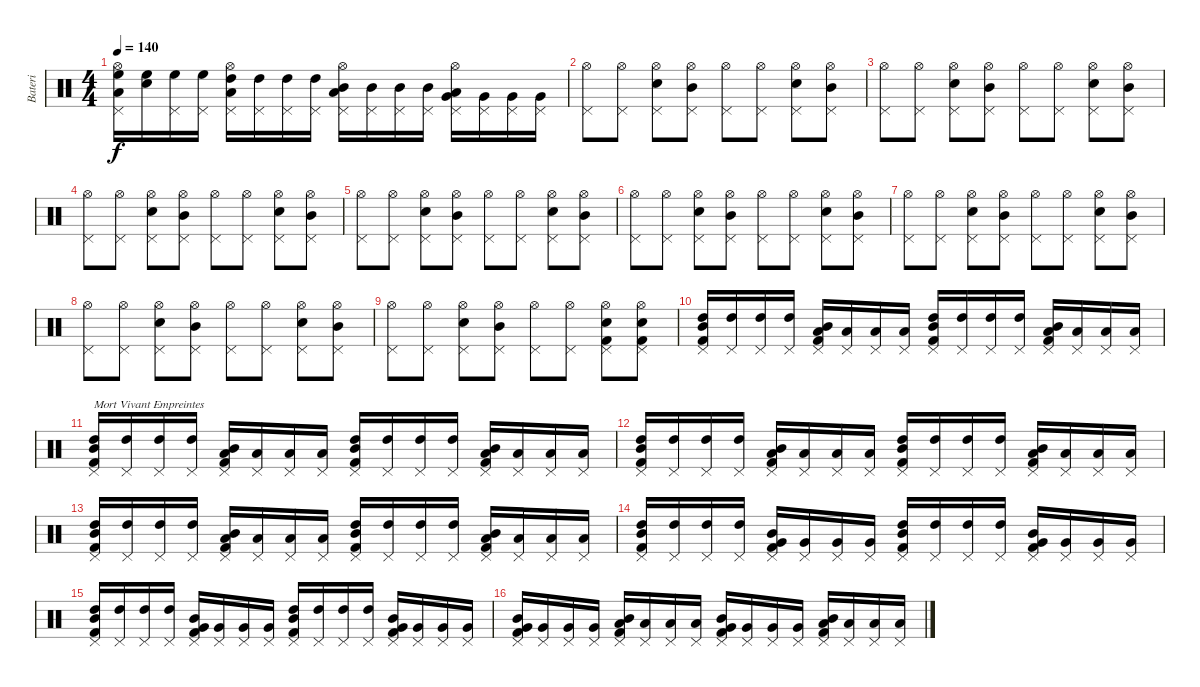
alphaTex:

\track ("Bateri" "Bateri") {instrument percussion}
\staff {score}
\articulation defaults
\ts (4 4)
\tempo 140
\clef neutral
\ks c
("Hi-Hat (open)" "High Floor Tom (hit)" "Low Tom (hit)" "Pedal Hi-Hat (hit)").16{dy f} ("High Floor Tom (hit)" "Snare (hit)").16 ("High Floor Tom (hit)" "Pedal Hi-Hat (hit)").16 ("High Floor Tom (hit)" "Pedal Hi-Hat (hit)").16 ("Hi-Hat (open)" "High Tom (hit)" "Low Tom (hit)" "Pedal Hi-Hat (hit)").16 ("High Tom (hit)" "Pedal Hi-Hat (hit)").16 ("High Tom (hit)" "Pedal Hi-Hat (hit)").16 ("High Tom (hit)" "Pedal Hi-Hat (hit)").16 ("Hi-Hat (open)" "Mid Tom (hit)" "Low Tom (hit)" "Pedal Hi-Hat (hit)").16 ("Mid Tom (hit)" "Pedal Hi-Hat (hit)").16 ("Mid Tom (hit)" "Pedal Hi-Hat (hit)").16 ("Mid Tom (hit)" "Pedal Hi-Hat (hit)").16 ("Hi-Hat (open)" "Very Low Tom (hit)" "Low Tom (hit)" "Pedal Hi-Hat (hit)").16 ("Very Low Tom (hit)" "Pedal Hi-Hat (hit)").16 ("Very Low Tom (hit)" "Pedal Hi-Hat (hit)").16 ("Very Low Tom (hit)" "Pedal Hi-Hat (hit)").16 |
("Hi-Hat (open)" "Pedal Hi-Hat (hit)").8 ("Hi-Hat (open)" "Pedal Hi-Hat (hit)").8 ("Hi-Hat (open)" "Snare (hit) 2" "Pedal Hi-Hat (hit)").8 ("Hi-Hat (open)" "Mid Tom (hit)" "Pedal Hi-Hat (hit)").8 ("Hi-Hat (open)" "Pedal Hi-Hat (hit)").8 ("Hi-Hat (open)" "Pedal Hi-Hat (hit)").8 ("Hi-Hat (open)" "Snare (hit) 2" "Pedal Hi-Hat (hit)").8 ("Hi-Hat (open)" "Mid Tom (hit)" "Pedal Hi-Hat (hit)").8 |
("Hi-Hat (open)" "Pedal Hi-Hat (hit)").8 ("Hi-Hat (open)" "Pedal Hi-Hat (hit)").8 ("Hi-Hat (open)" "Snare (hit) 2" "Pedal Hi-Hat (hit)").8 ("Hi-Hat (open)" "Mid Tom (hit)" "Pedal Hi-Hat (hit)").8 ("Hi-Hat (open)" "Pedal Hi-Hat (hit)").8 ("Hi-Hat (open)" "Pedal Hi-Hat (hit)").8 ("Hi-Hat (open)" "Snare (hit) 2" "Pedal Hi-Hat (hit)").8 ("Hi-Hat (open)" "Mid Tom (hit)" "Pedal Hi-Hat (hit)").8 |
("Hi-Hat (open)" "Pedal Hi-Hat (hit)").8 ("Hi-Hat (open)" "Pedal Hi-Hat (hit)").8 ("Hi-Hat (open)" "Snare (hit) 2" "Pedal Hi-Hat (hit)").8 ("Hi-Hat (open)" "Mid Tom (hit)" "Pedal Hi-Hat (hit)").8 ("Hi-Hat (open)" "Pedal Hi-Hat (hit)").8 ("Hi-Hat (open)" "Pedal Hi-Hat (hit)").8 ("Hi-Hat (open)" "Snare (hit) 2" "Pedal Hi-Hat (hit)").8 ("Hi-Hat (open)" "Mid Tom (hit)" "Pedal Hi-Hat (hit)").8 |
("Hi-Hat (open)" "Pedal Hi-Hat (hit)").8 ("Hi-Hat (open)" "Pedal Hi-Hat (hit)").8 ("Hi-Hat (open)" "Snare (hit) 2" "Pedal Hi-Hat (hit)").8 ("Hi-Hat (open)" "Mid Tom (hit)" "Pedal Hi-Hat (hit)").8 ("Hi-Hat (open)" "Pedal Hi-Hat (hit)").8 ("Hi-Hat (open)" "Pedal Hi-Hat (hit)").8 ("Hi-Hat (open)" "Snare (hit) 2" "Pedal Hi-Hat (hit)").8 ("Hi-Hat (open)" "Mid Tom (hit)" "Pedal Hi-Hat (hit)").8 |
("Hi-Hat (open)" "Pedal Hi-Hat (hit)").8 ("Hi-Hat (open)" "Pedal Hi-Hat (hit)").8 ("Hi-Hat (open)" "Snare (hit) 2" "Pedal Hi-Hat (hit)").8 ("Hi-Hat (open)" "Mid Tom (hit)" "Pedal Hi-Hat (hit)").8 ("Hi-Hat (open)" "Pedal Hi-Hat (hit)").8 ("Hi-Hat (open)" "Pedal Hi-Hat (hit)").8 ("Hi-Hat (open)" "Snare (hit) 2" "Pedal Hi-Hat (hit)").8 ("Hi-Hat (open)" "Mid Tom (hit)" "Pedal Hi-Hat (hit)").8 |
("Hi-Hat (open)" "Pedal Hi-Hat (hit)").8 ("Hi-Hat (open)" "Pedal Hi-Hat (hit)").8 ("Hi-Hat (open)" "Snare (hit) 2" "Pedal Hi-Hat (hit)").8 ("Hi-Hat (open)" "Mid Tom (hit)" "Pedal Hi-Hat (hit)").8 ("Hi-Hat (open)" "Pedal Hi-Hat (hit)").8 ("Hi-Hat (open)" "Pedal Hi-Hat (hit)").8 ("Hi-Hat (open)" "Snare (hit) 2" "Pedal Hi-Hat (hit)").8 ("Hi-Hat (open)" "Mid Tom (hit)" "Pedal Hi-Hat (hit)").8 |
("Hi-Hat (open)" "Pedal Hi-Hat (hit)").8 ("Hi-Hat (open)" "Pedal Hi-Hat (hit)").8 ("Hi-Hat (open)" "Snare (hit) 2" "Pedal Hi-Hat (hit)").8 ("Hi-Hat (open)" "Mid Tom (hit)" "Pedal Hi-Hat (hit)").8 ("Hi-Hat (open)" "Pedal Hi-Hat (hit)").8 ("Hi-Hat (open)" "Pedal Hi-Hat (hit)").8 ("Hi-Hat (open)" "Snare (hit) 2" "Pedal Hi-Hat (hit)").8 ("Hi-Hat (open)" "Mid Tom (hit)" "Pedal Hi-Hat (hit)").8 |
("Hi-Hat (open)" "Pedal Hi-Hat (hit)").8 ("Hi-Hat (open)" "Pedal Hi-Hat (hit)").8 ("Hi-Hat (open)" "Snare (hit) 2" "Pedal Hi-Hat (hit)").8 ("Hi-Hat (open)" "Mid Tom (hit)" "Pedal Hi-Hat (hit)").8 ("Hi-Hat (open)" "Pedal Hi-Hat (hit)").8 ("Hi-Hat (open)" "Pedal Hi-Hat (hit)").8 ("Hi-Hat (open)" "Snare (hit) 2" "Kick (hit) 2" "Pedal Hi-Hat (hit)").8 ("Hi-Hat (open)" "Snare (hit) 2" "Kick (hit) 2" "Pedal Hi-Hat (hit)").8 |
("High Tom (hit)" "Mid Tom (hit)" "Kick (hit) 2" "Pedal Hi-Hat (hit)").16 ("High Tom (hit)" "Pedal Hi-Hat (hit)").16 ("High Tom (hit)" "Pedal Hi-Hat (hit)").16 ("High Tom (hit)" "Pedal Hi-Hat (hit)").16 ("Low Tom (hit)" "Mid Tom (hit)" "Kick (hit) 2" "Pedal Hi-Hat (hit)").16 ("Low Tom (hit)" "Pedal Hi-Hat (hit)").16 ("Low Tom (hit)" "Pedal Hi-Hat (hit)").16 ("Low Tom (hit)" "Pedal Hi-Hat (hit)").16 ("High Tom (hit)" "Mid Tom (hit)" "Kick (hit) 2" "Pedal Hi-Hat (hit)").16 ("High Tom (hit)" "Pedal Hi-Hat (hit)").16 ("High Tom (hit)" "Pedal Hi-Hat (hit)").16 ("High Tom (hit)" "Pedal Hi-Hat (hit)").16 ("Low Tom (hit)" "Mid Tom (hit)" "Kick (hit) 2" "Pedal Hi-Hat (hit)").16 ("Low Tom (hit)" "Pedal Hi-Hat (hit)").16 ("Low Tom (hit)" "Pedal Hi-Hat (hit)").16 ("Low Tom (hit)" "Pedal Hi-Hat (hit)").16 |
("High Tom (hit)" "Mid Tom (hit)" "Kick (hit) 2" "Pedal Hi-Hat (hit)").16{txt "Mort Vivant Empreintes"} ("High Tom (hit)" "Pedal Hi-Hat (hit)").16 ("High Tom (hit)" "Pedal Hi-Hat (hit)").16 ("High Tom (hit)" "Pedal Hi-Hat (hit)").16 ("Low Tom (hit)" "Mid Tom (hit)" "Kick (hit) 2" "Pedal Hi-Hat (hit)").16 ("Low Tom (hit)" "Pedal Hi-Hat (hit)").16 ("Low Tom (hit)" "Pedal Hi-Hat (hit)").16 ("Low Tom (hit)" "Pedal Hi-Hat (hit)").16 ("High Tom (hit)" "Mid Tom (hit)" "Kick (hit) 2" "Pedal Hi-Hat (hit)").16 ("High Tom (hit)" "Pedal Hi-Hat (hit)").16 ("High Tom (hit)" "Pedal Hi-Hat (hit)").16 ("High Tom (hit)" "Pedal Hi-Hat (hit)").16 ("Low Tom (hit)" "Mid Tom (hit)" "Kick (hit) 2" "Pedal Hi-Hat (hit)").16 ("Low Tom (hit)" "Pedal Hi-Hat (hit)").16 ("Low Tom (hit)" "Pedal Hi-Hat (hit)").16 ("Low Tom (hit)" "Pedal Hi-Hat (hit)").16 |
("High Tom (hit)" "Mid Tom (hit)" "Kick (hit) 2" "Pedal Hi-Hat (hit)").16 ("High Tom (hit)" "Pedal Hi-Hat (hit)").16 ("High Tom (hit)" "Pedal Hi-Hat (hit)").16 ("High Tom (hit)" "Pedal Hi-Hat (hit)").16 ("Low Tom (hit)" "Mid Tom (hit)" "Kick (hit) 2" "Pedal Hi-Hat (hit)").16 ("Low Tom (hit)" "Pedal Hi-Hat (hit)").16 ("Low Tom (hit)" "Pedal Hi-Hat (hit)").16 ("Low Tom (hit)" "Pedal Hi-Hat (hit)").16 ("High Tom (hit)" "Mid Tom (hit)" "Kick (hit) 2" "Pedal Hi-Hat (hit)").16 ("High Tom (hit)" "Pedal Hi-Hat (hit)").16 ("High Tom (hit)" "Pedal Hi-Hat (hit)").16 ("High Tom (hit)" "Pedal Hi-Hat (hit)").16 ("Low Tom (hit)" "Mid Tom (hit)" "Kick (hit) 2" "Pedal Hi-Hat (hit)").16 ("Low Tom (hit)" "Pedal Hi-Hat (hit)").16 ("Low Tom (hit)" "Pedal Hi-Hat (hit)").16 ("Low Tom (hit)" "Pedal Hi-Hat (hit)").16 |
("High Tom (hit)" "Mid Tom (hit)" "Kick (hit) 2" "Pedal Hi-Hat (hit)").16 ("High Tom (hit)" "Pedal Hi-Hat (hit)").16 ("High Tom (hit)" "Pedal Hi-Hat (hit)").16 ("High Tom (hit)" "Pedal Hi-Hat (hit)").16 ("Low Tom (hit)" "Mid Tom (hit)" "Kick (hit) 2" "Pedal Hi-Hat (hit)").16 ("Low Tom (hit)" "Pedal Hi-Hat (hit)").16 ("Low Tom (hit)" "Pedal Hi-Hat (hit)").16 ("Low Tom (hit)" "Pedal Hi-Hat (hit)").16 ("High Tom (hit)" "Mid Tom (hit)" "Kick (hit) 2" "Pedal Hi-Hat (hit)").16 ("High Tom (hit)" "Pedal Hi-Hat (hit)").16 ("High Tom (hit)" "Pedal Hi-Hat (hit)").16 ("High Tom (hit)" "Pedal Hi-Hat (hit)").16 ("Low Tom (hit)" "Mid Tom (hit)" "Kick (hit) 2" "Pedal Hi-Hat (hit)").16 ("Low Tom (hit)" "Pedal Hi-Hat (hit)").16 ("Low Tom (hit)" "Pedal Hi-Hat (hit)").16 ("Low Tom (hit)" "Pedal Hi-Hat (hit)").16 |
("High Tom (hit)" "Mid Tom (hit)" "Kick (hit) 2" "Pedal Hi-Hat (hit)").16 ("High Tom (hit)" "Pedal Hi-Hat (hit)").16 ("High Tom (hit)" "Pedal Hi-Hat (hit)").16 ("High Tom (hit)" "Pedal Hi-Hat (hit)").16 ("Very Low Tom (hit)" "Mid Tom (hit)" "Kick (hit) 2" "Pedal Hi-Hat (hit)").16 ("Very Low Tom (hit)" "Pedal Hi-Hat (hit)").16 ("Very Low Tom (hit)" "Pedal Hi-Hat (hit)").16 ("Very Low Tom (hit)" "Pedal Hi-Hat (hit)").16 ("High Tom (hit)" "Mid Tom (hit)" "Kick (hit) 2" "Pedal Hi-Hat (hit)").16 ("High Tom (hit)" "Pedal Hi-Hat (hit)").16 ("High Tom (hit)" "Pedal Hi-Hat (hit)").16 ("High Tom (hit)" "Pedal Hi-Hat (hit)").16 ("Very Low Tom (hit)" "Mid Tom (hit)" "Kick (hit) 2" "Pedal Hi-Hat (hit)").16 ("Very Low Tom (hit)" "Pedal Hi-Hat (hit)").16 ("Very Low Tom (hit)" "Pedal Hi-Hat (hit)").16 ("Very Low Tom (hit)" "Pedal Hi-Hat (hit)").16 |
("High Tom (hit)" "Mid Tom (hit)" "Kick (hit) 2" "Pedal Hi-Hat (hit)").16 ("High Tom (hit)" "Pedal Hi-Hat (hit)").16 ("High Tom (hit)" "Pedal Hi-Hat (hit)").16 ("High Tom (hit)" "Pedal Hi-Hat (hit)").16 ("Very Low Tom (hit)" "Mid Tom (hit)" "Kick (hit) 2" "Pedal Hi-Hat (hit)").16 ("Very Low Tom (hit)" "Pedal Hi-Hat (hit)").16 ("Very Low Tom (hit)" "Pedal Hi-Hat (hit)").16 ("Very Low Tom (hit)" "Pedal Hi-Hat (hit)").16 ("High Tom (hit)" "Mid Tom (hit)" "Kick (hit) 2" "Pedal Hi-Hat (hit)").16 ("High Tom (hit)" "Pedal Hi-Hat (hit)").16 ("High Tom (hit)" "Pedal Hi-Hat (hit)").16 ("High Tom (hit)" "Pedal Hi-Hat (hit)").16 ("Very Low Tom (hit)" "Mid Tom (hit)" "Kick (hit) 2" "Pedal Hi-Hat (hit)").16 ("Very Low Tom (hit)" "Pedal Hi-Hat (hit)").16 ("Very Low Tom (hit)" "Pedal Hi-Hat (hit)").16 ("Very Low Tom (hit)" "Pedal Hi-Hat (hit)").16 |
("Very Low Tom (hit)" "Mid Tom (hit)" "Kick (hit) 2" "Pedal Hi-Hat (hit)").16 ("Very Low Tom (hit)" "Pedal Hi-Hat (hit)").16 ("Very Low Tom (hit)" "Pedal Hi-Hat (hit)").16 ("Very Low Tom (hit)" "Pedal Hi-Hat (hit)").16 ("Low Tom (hit)" "Mid Tom (hit)" "Kick (hit) 2" "Pedal Hi-Hat (hit)").16 ("Low Tom (hit)" "Pedal Hi-Hat (hit)").16 ("Low Tom (hit)" "Pedal Hi-Hat (hit)").16 ("Low Tom (hit)" "Pedal Hi-Hat (hit)").16 ("Very Low Tom (hit)" "Mid Tom (hit)" "Kick (hit) 2" "Pedal Hi-Hat (hit)").16 ("Very Low Tom (hit)" "Pedal Hi-Hat (hit)").16 ("Very Low Tom (hit)" "Pedal Hi-Hat (hit)").16 ("Very Low Tom (hit)" "Pedal Hi-Hat (hit)").16 ("Low Tom (hit)" "Mid Tom (hit)" "Kick (hit) 2" "Pedal Hi-Hat (hit)").16 ("Low Tom (hit)" "Pedal Hi-Hat (hit)").16 ("Low Tom (hit)" "Pedal Hi-Hat (hit)").16 ("Low Tom (hit)" "Pedal Hi-Hat (hit)").16
